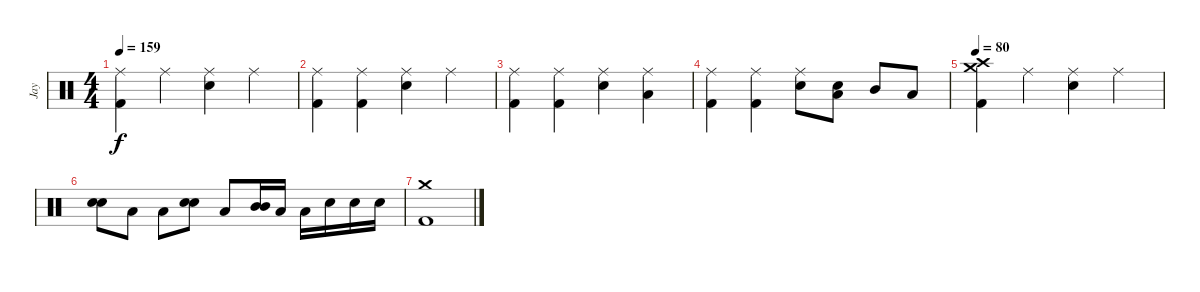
\track ("Jay" "Jay") {instrument percussion}
\staff {score}
\articulation defaults
\ts (4 4)
\tempo 159
\clef neutral
\ks c
("Ride (middle)" "Kick (hit) 2").4{dy f} "Ride (middle)".4 ("Ride (middle)" "Electric Snare (hit)").4 "Ride (middle)".4 |
("Ride (middle)" "Kick (hit) 2").4 ("Ride (middle)" "Kick (hit) 2").4 ("Ride (middle)" "Electric Snare (hit)").4 "Ride (middle)".4 |
("Ride (middle)" "Kick (hit) 2").4 ("Ride (middle)" "Kick (hit) 2").4 ("Ride (middle)" "Electric Snare (hit)").4 ("Ride (middle)" "Low Tom (hit)").4 |
("Ride (middle)" "Kick (hit) 2").4 ("Ride (middle)" "Kick (hit) 2").4 ("Ride (middle)" "Electric Snare (hit)").8 ("Low Tom (hit)" "Snare (hit)").8 "Mid Tom (hit)".8 "Low Tom (hit)".8 |
\tempo 80
("Crash medium (hit)" "Crash high (hit)" "Kick (hit) 2").4 "Ride (middle)".4 ("Ride (middle)" "Electric Snare (hit)").4 "Ride (middle)".4 |
("Electric Snare (hit)" "Electric Snare (hit)").8{bd 60} "Low Tom (hit)".8 "Low Tom (hit)".8 ("Electric Snare (hit)" "Electric Snare (hit)").8{bd 60} "Low Tom (hit)".8 ("Mid Tom (hit)" "Mid Tom (hit)").16 "Low Tom (hit)".16 "Low Tom (hit)".16 "Electric Snare (hit)".16 "Electric Snare (hit)".16 "Electric Snare (hit)".16 |
("Crash medium (hit)" "Kick (hit) 2").1
